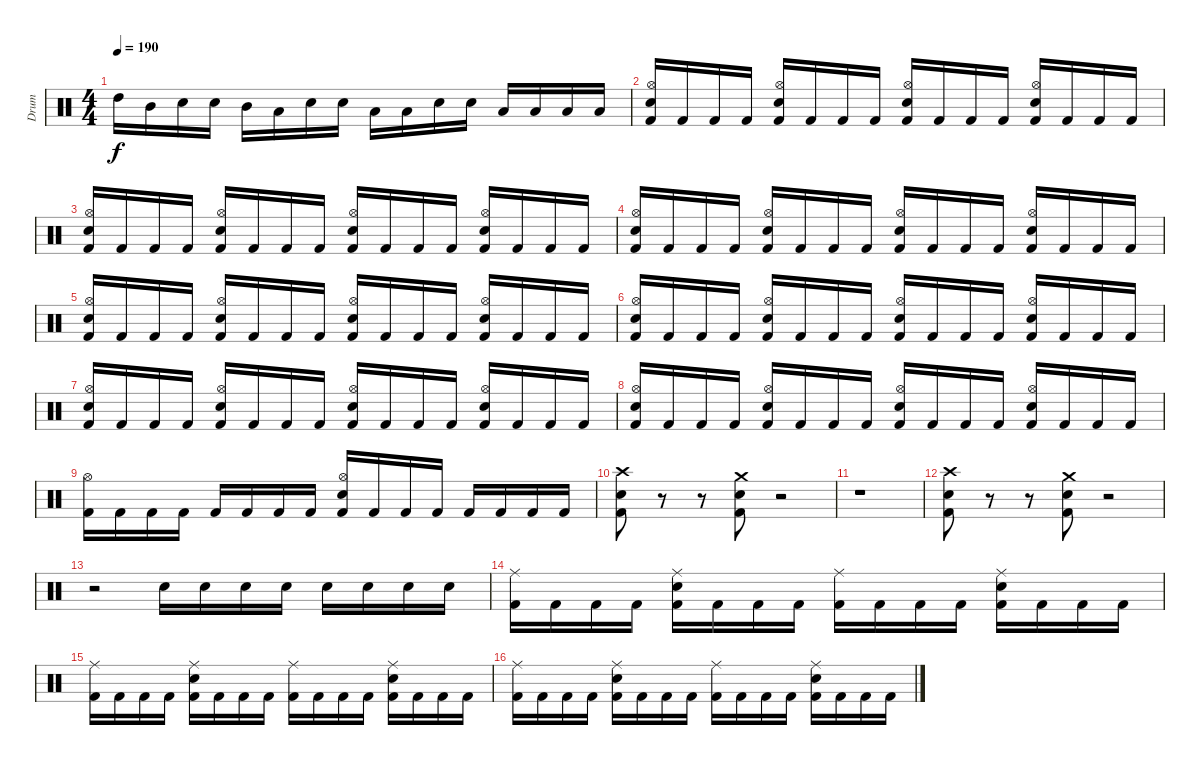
\track ("Drum" "Drum") {instrument percussion}
\staff {score}
\articulation defaults
\ts (4 4)
\tempo 190
\clef neutral
\ks c "High Tom (hit)".16{dy f} "Mid Tom (hit)".16 "Snare (hit) 2".16 "Snare (hit) 2".16 "Mid Tom (hit)".16 "Low Tom (hit)".16 "Snare (hit) 2".16 "Snare (hit) 2".16 "Low Tom (hit)".16 "Low Floor Tom (hit)".16 "Snare (hit) 2".16 "Snare (hit) 2".16 "Low Tom (hit)".16 "Low Tom (hit)".16 "Low Tom (hit)".16 "Low Tom (hit)".16
|
("Hi-Hat (open)" "Snare (hit) 2" "Kick (hit) 2").16 "Kick (hit) 2".16 "Kick (hit) 2".16 "Kick (hit) 2".16 ("Hi-Hat (open)" "Snare (hit) 2" "Kick (hit) 2").16 "Kick (hit) 2".16 "Kick (hit) 2".16 "Kick (hit) 2".16 ("Hi-Hat (open)" "Snare (hit) 2" "Kick (hit) 2").16 "Kick (hit) 2".16 "Kick (hit) 2".16 "Kick (hit) 2".16 ("Hi-Hat (open)" "Snare (hit) 2" "Kick (hit) 2").16 "Kick (hit) 2".16 "Kick (hit) 2".16 "Kick (hit) 2".16 |
("Hi-Hat (open)" "Snare (hit) 2" "Kick (hit) 2").16 "Kick (hit) 2".16 "Kick (hit) 2".16 "Kick (hit) 2".16 ("Hi-Hat (open)" "Snare (hit) 2" "Kick (hit) 2").16 "Kick (hit) 2".16 "Kick (hit) 2".16 "Kick (hit) 2".16 ("Hi-Hat (open)" "Snare (hit) 2" "Kick (hit) 2").16 "Kick (hit) 2".16 "Kick (hit) 2".16 "Kick (hit) 2".16 ("Hi-Hat (open)" "Snare (hit) 2" "Kick (hit) 2").16 "Kick (hit) 2".16 "Kick (hit) 2".16 "Kick (hit) 2".16 |
("Hi-Hat (open)" "Snare (hit) 2" "Kick (hit) 2").16 "Kick (hit) 2".16 "Kick (hit) 2".16 "Kick (hit) 2".16 ("Hi-Hat (open)" "Snare (hit) 2" "Kick (hit) 2").16 "Kick (hit) 2".16 "Kick (hit) 2".16 "Kick (hit) 2".16 ("Hi-Hat (open)" "Snare (hit) 2" "Kick (hit) 2").16 "Kick (hit) 2".16 "Kick (hit) 2".16 "Kick (hit) 2".16 ("Hi-Hat (open)" "Snare (hit) 2" "Kick (hit) 2").16 "Kick (hit) 2".16 "Kick (hit) 2".16 "Kick (hit) 2".16 |
("Hi-Hat (open)" "Snare (hit) 2" "Kick (hit) 2").16 "Kick (hit) 2".16 "Kick (hit) 2".16 "Kick (hit) 2".16 ("Hi-Hat (open)" "Snare (hit) 2" "Kick (hit) 2").16 "Kick (hit) 2".16 "Kick (hit) 2".16 "Kick (hit) 2".16 ("Hi-Hat (open)" "Snare (hit) 2" "Kick (hit) 2").16 "Kick (hit) 2".16 "Kick (hit) 2".16 "Kick (hit) 2".16 ("Hi-Hat (open)" "Snare (hit) 2" "Kick (hit) 2").16 "Kick (hit) 2".16 "Kick (hit) 2".16 "Kick (hit) 2".16 |
("Hi-Hat (open)" "Snare (hit) 2" "Kick (hit) 2").16 "Kick (hit) 2".16 "Kick (hit) 2".16 "Kick (hit) 2".16 ("Hi-Hat (open)" "Snare (hit) 2" "Kick (hit) 2").16 "Kick (hit) 2".16 "Kick (hit) 2".16 "Kick (hit) 2".16 ("Hi-Hat (open)" "Snare (hit) 2" "Kick (hit) 2").16 "Kick (hit) 2".16 "Kick (hit) 2".16 "Kick (hit) 2".16 ("Hi-Hat (open)" "Snare (hit) 2" "Kick (hit) 2").16 "Kick (hit) 2".16 "Kick (hit) 2".16 "Kick (hit) 2".16 |
("Hi-Hat (open)" "Snare (hit) 2" "Kick (hit) 2").16 "Kick (hit) 2".16 "Kick (hit) 2".16 "Kick (hit) 2".16 ("Hi-Hat (open)" "Snare (hit) 2" "Kick (hit) 2").16 "Kick (hit) 2".16 "Kick (hit) 2".16 "Kick (hit) 2".16 ("Hi-Hat (open)" "Snare (hit) 2" "Kick (hit) 2").16 "Kick (hit) 2".16 "Kick (hit) 2".16 "Kick (hit) 2".16 ("Hi-Hat (open)" "Snare (hit) 2" "Kick (hit) 2").16 "Kick (hit) 2".16 "Kick (hit) 2".16 "Kick (hit) 2".16 |
("Hi-Hat (open)" "Snare (hit) 2" "Kick (hit) 2").16 "Kick (hit) 2".16 "Kick (hit) 2".16 "Kick (hit) 2".16 ("Hi-Hat (open)" "Snare (hit) 2" "Kick (hit) 2").16 "Kick (hit) 2".16 "Kick (hit) 2".16 "Kick (hit) 2".16 ("Hi-Hat (open)" "Snare (hit) 2" "Kick (hit) 2").16 "Kick (hit) 2".16 "Kick (hit) 2".16 "Kick (hit) 2".16 ("Hi-Hat (open)" "Snare (hit) 2" "Kick (hit) 2").16 "Kick (hit) 2".16 "Kick (hit) 2".16 "Kick (hit) 2".16 |
("Hi-Hat (open)" "Kick (hit) 2").16 "Kick (hit) 2".16 "Kick (hit) 2".16 "Kick (hit) 2".16 "Kick (hit) 2".16 "Kick (hit) 2".16 "Kick (hit) 2".16 "Kick (hit) 2".16 ("Hi-Hat (open)" "Snare (hit) 2" "Kick (hit) 2").16 "Kick (hit) 2".16 "Kick (hit) 2".16 "Kick (hit) 2".16 "Kick (hit) 2".16 "Kick (hit) 2".16 "Kick (hit) 2".16 "Kick (hit) 2".16 |
("Crash high (hit)" "Snare (hit) 2" "Kick (hit) 2").8 r.8 r.8 ("Crash medium (hit)" "Snare (hit) 2" "Kick (hit) 2").8 r.2 |
r.1 |
("Crash high (hit)" "Snare (hit) 2" "Kick (hit) 2").8 r.8 r.8 ("Crash medium (hit)" "Snare (hit) 2" "Kick (hit) 2").8 r.2 |
r.2 "Snare (hit) 2".16 "Snare (hit) 2".16 "Snare (hit) 2".16 "Snare (hit) 2".16 "Snare (hit) 2".16 "Snare (hit) 2".16 "Snare (hit) 2".16 "Snare (hit) 2".16 |
("Ride (middle)" "Kick (hit) 2").16 "Kick (hit) 2".16 "Kick (hit) 2".16 "Kick (hit) 2".16 ("Ride (middle)" "Snare (hit) 2" "Kick (hit) 2").16 "Kick (hit) 2".16 "Kick (hit) 2".16 "Kick (hit) 2".16 ("Ride (middle)" "Kick (hit) 2").16 "Kick (hit) 2".16 "Kick (hit) 2".16 "Kick (hit) 2".16 ("Ride (middle)" "Snare (hit) 2" "Kick (hit) 2").16 "Kick (hit) 2".16 "Kick (hit) 2".16 "Kick (hit) 2".16 |
("Ride (middle)" "Kick (hit) 2").16 "Kick (hit) 2".16 "Kick (hit) 2".16 "Kick (hit) 2".16 ("Ride (middle)" "Snare (hit) 2" "Kick (hit) 2").16 "Kick (hit) 2".16 "Kick (hit) 2".16 "Kick (hit) 2".16 ("Ride (middle)" "Kick (hit) 2").16 "Kick (hit) 2".16 "Kick (hit) 2".16 "Kick (hit) 2".16 ("Ride (middle)" "Snare (hit) 2" "Kick (hit) 2").16 "Kick (hit) 2".16 "Kick (hit) 2".16 "Kick (hit) 2".16 |
("Ride (middle)" "Kick (hit) 2").16 "Kick (hit) 2".16 "Kick (hit) 2".16 "Kick (hit) 2".16 ("Ride (middle)" "Snare (hit) 2" "Kick (hit) 2").16 "Kick (hit) 2".16 "Kick (hit) 2".16 "Kick (hit) 2".16 ("Ride (middle)" "Kick (hit) 2").16 "Kick (hit) 2".16 "Kick (hit) 2".16 "Kick (hit) 2".16 ("Ride (middle)" "Snare (hit) 2" "Kick (hit) 2").16 "Kick (hit) 2".16 "Kick (hit) 2".16 "Kick (hit) 2".16
